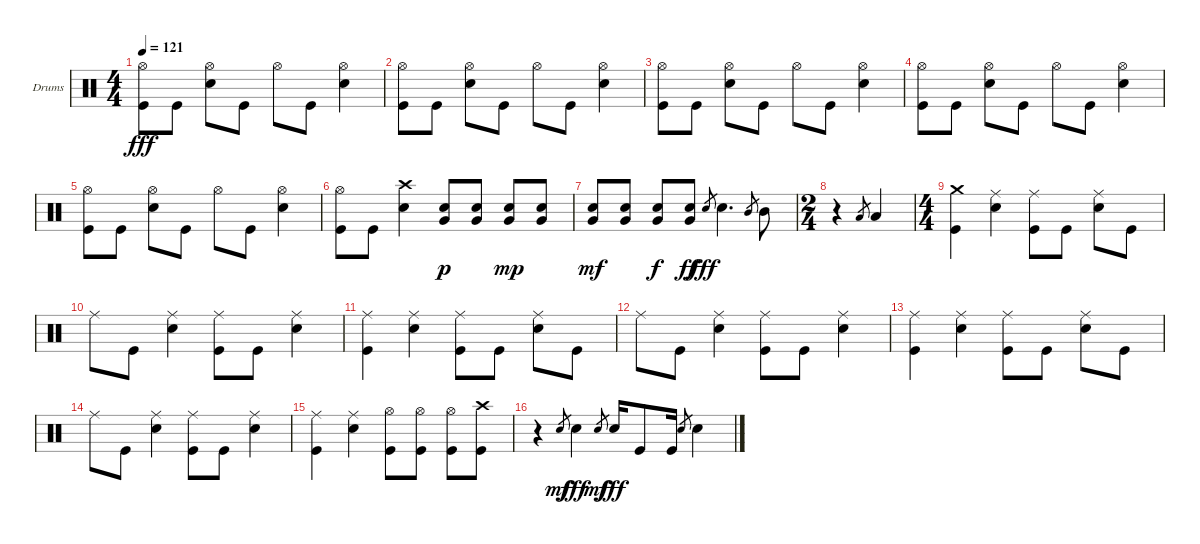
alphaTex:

\bracketExtendMode groupsimilarinstruments
\firstSystemTrackNameOrientation horizontal
\otherSystemsTrackNameOrientation horizontal
\track ("Drumkit" "Drums") {instrument percussion}
\staff {score}
\articulation defaults
\ts (4 4)
\tempo 121
\clef neutral
\ks c
("Kick (hit)" "Hi-Hat (open)").8{dy fff} "Kick (hit)".8 ("Snare (hit) 2" "Hi-Hat (open)").8 "Kick (hit)".8 "Hi-Hat (open)".8 "Kick (hit)".8 ("Snare (hit) 2" "Hi-Hat (open)").4 |
("Kick (hit)" "Hi-Hat (open)").8 "Kick (hit)".8 ("Snare (hit) 2" "Hi-Hat (open)").8 "Kick (hit)".8 "Hi-Hat (open)".8 "Kick (hit)".8 ("Snare (hit) 2" "Hi-Hat (open)").4 |
("Kick (hit)" "Hi-Hat (open)").8 "Kick (hit)".8 ("Snare (hit) 2" "Hi-Hat (open)").8 "Kick (hit)".8 "Hi-Hat (open)".8 "Kick (hit)".8 ("Snare (hit) 2" "Hi-Hat (open)").4 |
("Kick (hit)" "Hi-Hat (open)").8 "Kick (hit)".8 ("Snare (hit) 2" "Hi-Hat (open)").8 "Kick (hit)".8 "Hi-Hat (open)".8 "Kick (hit)".8 ("Snare (hit) 2" "Hi-Hat (open)").4 |
("Kick (hit)" "Hi-Hat (open)").8 "Kick (hit)".8 ("Snare (hit) 2" "Hi-Hat (open)").8 "Kick (hit)".8 "Hi-Hat (open)".8 "Kick (hit)".8 ("Snare (hit) 2" "Hi-Hat (open)").4 |
("Kick (hit)" "Hi-Hat (open)").8 "Kick (hit)".8 ("Snare (hit) 2" "Crash high (hit)").4 ("Snare (hit) 2" "Very Low Tom (hit)").8{dy p} ("Snare (hit) 2" "Very Low Tom (hit)").8 ("Snare (hit) 2" "Very Low Tom (hit)").8{dy mp} ("Snare (hit) 2" "Very Low Tom (hit)").8 |
("Snare (hit) 2" "Very Low Tom (hit)").8{dy mf} ("Snare (hit) 2" "Very Low Tom (hit)").8 ("Snare (hit) 2" "Very Low Tom (hit)").8{dy f} ("Snare (hit) 2" "Very Low Tom (hit)").8{dy ff} "Snare (hit) 2".8{gr dy fff} "Snare (hit) 2".4{d} "Mid Tom (hit)".8{gr} "Mid Tom (hit)".8 |
\ts (2 4)
r.4 "Low Tom (hit)".8{gr} "Low Tom (hit)".4 |
\ts (4 4)
("Kick (hit)" "Crash medium (hit)").4 ("Snare (hit) 2" "Ride (middle)").4 ("Kick (hit)" "Ride (middle)").8 "Kick (hit)".8 ("Snare (hit) 2" "Ride (middle)").8 "Kick (hit)".8 |
"Ride (middle)".8 "Kick (hit)".8 ("Snare (hit) 2" "Ride (middle)").4 ("Kick (hit)" "Ride (middle)").8 "Kick (hit)".8 ("Snare (hit) 2" "Ride (middle)").4 |
("Kick (hit)" "Ride (middle)").4 ("Snare (hit) 2" "Ride (middle)").4 ("Kick (hit)" "Ride (middle)").8 "Kick (hit)".8 ("Snare (hit) 2" "Ride (middle)").8 "Kick (hit)".8 |
"Ride (middle)".8 "Kick (hit)".8 ("Snare (hit) 2" "Ride (middle)").4 ("Kick (hit)" "Ride (middle)").8 "Kick (hit)".8 ("Snare (hit) 2" "Ride (middle)").4 |
("Kick (hit)" "Ride (middle)").4 ("Snare (hit) 2" "Ride (middle)").4 ("Kick (hit)" "Ride (middle)").8 "Kick (hit)".8 ("Snare (hit) 2" "Ride (middle)").8 "Kick (hit)".8 |
"Ride (middle)".8 "Kick (hit)".8 ("Snare (hit) 2" "Ride (middle)").4 ("Kick (hit)" "Ride (middle)").8 "Kick (hit)".8 ("Snare (hit) 2" "Ride (middle)").4 |
("Kick (hit)" "Ride (middle)").4 ("Snare (hit) 2" "Ride (middle)").4 ("Kick (hit)" "Hi-Hat (open)").8 ("Kick (hit)" "Hi-Hat (open)").8 ("Hi-Hat (open)" "Kick (hit)").8 ("Kick (hit)" "Crash high (hit)").8 |
r.4 "Snare (hit) 2".8{gr dy mf} "Snare (hit) 2".4{dy fff} "Snare (hit) 2".8{gr dy mf} "Snare (hit) 2".16{dy fff} "Kick (hit)".8 "Kick (hit)".16 "Snare (hit) 2".8{gr} "Snare (hit) 2".4
